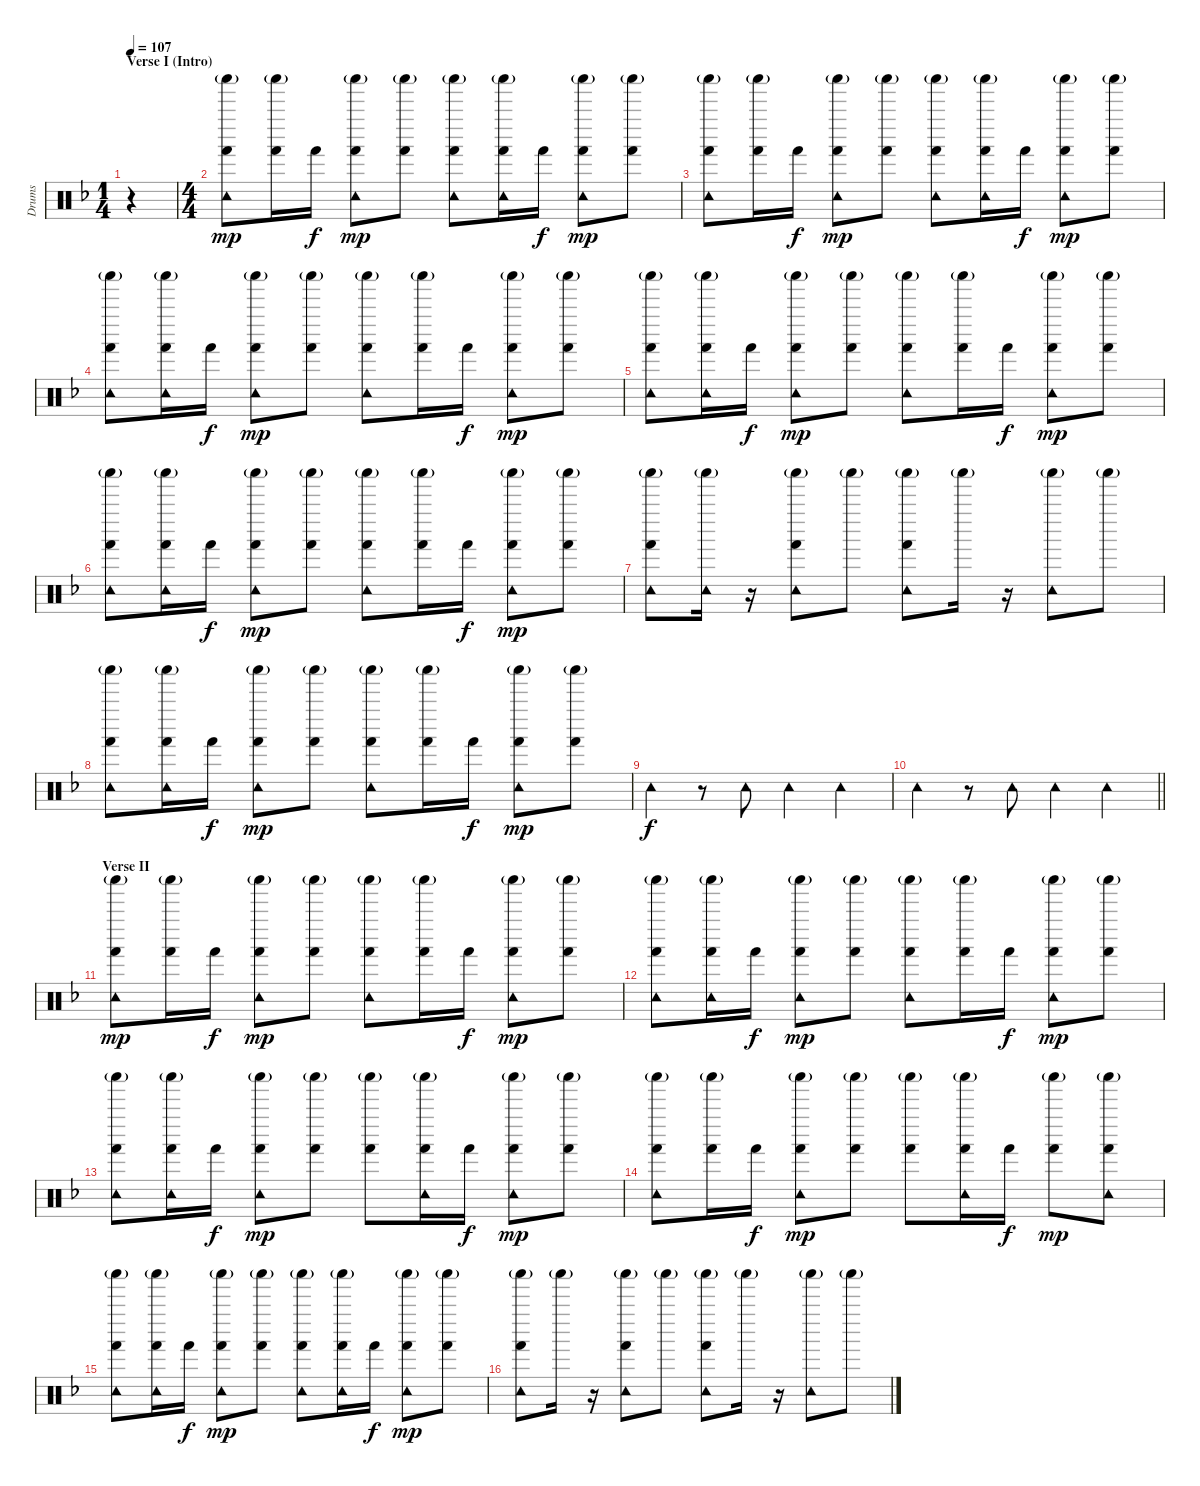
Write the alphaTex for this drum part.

\track ("Drums" "Drums") {instrument percussion}
\staff {score}
\articulation defaults
\ts (1 4)
\section ("" "Verse I (Intro)")
\tempo 107
\clef neutral
\ks f
r.4{dy mp} |
\ts (4 4)
("Tambourine (hit)" "Shaker (hit)"{g} "Hand (hit)").8 ("Shaker (hit)"{g} "Hand (hit)").16 "Hand (hit)".16{dy f} ("Tambourine (hit)" "Shaker (hit)"{g} "Hand (hit)").8{dy mp} ("Shaker (hit)"{g} "Hand (hit)").8 ("Tambourine (hit)" "Shaker (hit)"{g} "Hand (hit)").8 ("Tambourine (hit)" "Shaker (hit)"{g} "Hand (hit)").16 "Hand (hit)".16{dy f} ("Tambourine (hit)" "Shaker (hit)"{g} "Hand (hit)").8{dy mp} ("Shaker (hit)"{g} "Hand (hit)").8 |
("Tambourine (hit)" "Shaker (hit)"{g} "Hand (hit)").8 ("Shaker (hit)"{g} "Hand (hit)").16 "Hand (hit)".16{dy f} ("Tambourine (hit)" "Shaker (hit)"{g} "Hand (hit)").8{dy mp} ("Shaker (hit)"{g} "Hand (hit)").8 ("Tambourine (hit)" "Shaker (hit)"{g} "Hand (hit)").8 ("Tambourine (hit)" "Shaker (hit)"{g} "Hand (hit)").16 "Hand (hit)".16{dy f} ("Tambourine (hit)" "Shaker (hit)"{g} "Hand (hit)").8{dy mp} ("Shaker (hit)"{g} "Hand (hit)").8 |
("Tambourine (hit)" "Shaker (hit)"{g} "Hand (hit)").8 ("Tambourine (hit)" "Shaker (hit)"{g} "Hand (hit)").16 "Hand (hit)".16{dy f} ("Tambourine (hit)" "Shaker (hit)"{g} "Hand (hit)").8{dy mp} ("Shaker (hit)"{g} "Hand (hit)").8 ("Tambourine (hit)" "Shaker (hit)"{g} "Hand (hit)").8 ("Shaker (hit)"{g} "Hand (hit)").16 "Hand (hit)".16{dy f} ("Tambourine (hit)" "Shaker (hit)"{g} "Hand (hit)").8{dy mp} ("Shaker (hit)"{g} "Hand (hit)").8 |
("Tambourine (hit)" "Shaker (hit)"{g} "Hand (hit)").8 ("Tambourine (hit)" "Shaker (hit)"{g} "Hand (hit)").16 "Hand (hit)".16{dy f} ("Tambourine (hit)" "Shaker (hit)"{g} "Hand (hit)").8{dy mp} ("Shaker (hit)"{g} "Hand (hit)").8 ("Tambourine (hit)" "Shaker (hit)"{g} "Hand (hit)").8 ("Shaker (hit)"{g} "Hand (hit)").16 "Hand (hit)".16{dy f} ("Tambourine (hit)" "Shaker (hit)"{g} "Hand (hit)").8{dy mp} ("Shaker (hit)"{g} "Hand (hit)").8 |
("Tambourine (hit)" "Shaker (hit)"{g} "Hand (hit)").8 ("Tambourine (hit)" "Shaker (hit)"{g} "Hand (hit)").16 "Hand (hit)".16{dy f} ("Tambourine (hit)" "Shaker (hit)"{g} "Hand (hit)").8{dy mp} ("Shaker (hit)"{g} "Hand (hit)").8 ("Tambourine (hit)" "Shaker (hit)"{g} "Hand (hit)").8 ("Shaker (hit)"{g} "Hand (hit)").16 "Hand (hit)".16{dy f} ("Tambourine (hit)" "Shaker (hit)"{g} "Hand (hit)").8{dy mp} ("Shaker (hit)"{g} "Hand (hit)").8 |
("Tambourine (hit)" "Shaker (hit)"{g} "Hand (hit)").8 ("Tambourine (hit)" "Shaker (hit)"{g}).16 r.16 ("Tambourine (hit)" "Shaker (hit)"{g} "Hand (hit)").8 "Shaker (hit)"{g}.8 ("Tambourine (hit)" "Shaker (hit)"{g} "Hand (hit)").8 "Shaker (hit)"{g}.16 r.16 ("Tambourine (hit)" "Shaker (hit)"{g}).8 "Shaker (hit)"{g}.8 |
("Tambourine (hit)" "Shaker (hit)"{g} "Hand (hit)").8 ("Tambourine (hit)" "Shaker (hit)"{g} "Hand (hit)").16 "Hand (hit)".16{dy f} ("Tambourine (hit)" "Shaker (hit)"{g} "Hand (hit)").8{dy mp} ("Shaker (hit)"{g} "Hand (hit)").8 ("Tambourine (hit)" "Shaker (hit)"{g} "Hand (hit)").8 ("Shaker (hit)"{g} "Hand (hit)").16 "Hand (hit)".16{dy f} ("Tambourine (hit)" "Shaker (hit)"{g} "Hand (hit)").8{dy mp} ("Shaker (hit)"{g} "Hand (hit)").8 |
"Tambourine (hit)".4{dy f} r.8 "Tambourine (hit)".8 "Tambourine (hit)".4 "Tambourine (hit)".4 |
\barLineRight lightlight "Tambourine (hit)".4
r.8 "Tambourine (hit)".8 "Tambourine (hit)".4 "Tambourine (hit)".4 |
\section ("" "Verse II")
("Tambourine (hit)" "Shaker (hit)"{g} "Hand (hit)").8{dy mp} ("Shaker (hit)"{g} "Hand (hit)").16 "Hand (hit)".16{dy f} ("Tambourine (hit)" "Shaker (hit)"{g} "Hand (hit)").8{dy mp} ("Shaker (hit)"{g} "Hand (hit)").8 ("Tambourine (hit)" "Shaker (hit)"{g} "Hand (hit)").8 ("Shaker (hit)"{g} "Hand (hit)").16 "Hand (hit)".16{dy f} ("Tambourine (hit)" "Shaker (hit)"{g} "Hand (hit)").8{dy mp} ("Shaker (hit)"{g} "Hand (hit)").8 |
("Tambourine (hit)" "Shaker (hit)"{g} "Hand (hit)").8 ("Tambourine (hit)" "Shaker (hit)"{g} "Hand (hit)").16 "Hand (hit)".16{dy f} ("Tambourine (hit)" "Shaker (hit)"{g} "Hand (hit)").8{dy mp} ("Shaker (hit)"{g} "Hand (hit)").8 ("Tambourine (hit)" "Shaker (hit)"{g} "Hand (hit)").8 ("Shaker (hit)"{g} "Hand (hit)").16 "Hand (hit)".16{dy f} ("Tambourine (hit)" "Shaker (hit)"{g} "Hand (hit)").8{dy mp} ("Shaker (hit)"{g} "Hand (hit)").8 |
("Tambourine (hit)" "Shaker (hit)"{g} "Hand (hit)").8 ("Tambourine (hit)" "Shaker (hit)"{g} "Hand (hit)").16 "Hand (hit)".16{dy f} ("Tambourine (hit)" "Shaker (hit)"{g} "Hand (hit)").8{dy mp} ("Shaker (hit)"{g} "Hand (hit)").8 ("Shaker (hit)"{g} "Hand (hit)").8 ("Tambourine (hit)" "Shaker (hit)"{g} "Hand (hit)").16 "Hand (hit)".16{dy f} ("Tambourine (hit)" "Shaker (hit)"{g} "Hand (hit)").8{dy mp} ("Shaker (hit)"{g} "Hand (hit)").8 |
("Tambourine (hit)" "Shaker (hit)"{g} "Hand (hit)").8 ("Shaker (hit)"{g} "Hand (hit)").16 "Hand (hit)".16{dy f} ("Tambourine (hit)" "Shaker (hit)"{g} "Hand (hit)").8{dy mp} ("Shaker (hit)"{g} "Hand (hit)").8 ("Shaker (hit)"{g} "Hand (hit)").8 ("Tambourine (hit)" "Shaker (hit)"{g} "Hand (hit)").16 "Hand (hit)".16{dy f} ("Shaker (hit)"{g} "Hand (hit)").8{dy mp} ("Tambourine (hit)" "Shaker (hit)"{g} "Hand (hit)").8 |
("Tambourine (hit)" "Shaker (hit)"{g} "Hand (hit)").8 ("Tambourine (hit)" "Shaker (hit)"{g} "Hand (hit)").16 "Hand (hit)".16{dy f} ("Tambourine (hit)" "Shaker (hit)"{g} "Hand (hit)").8{dy mp} ("Shaker (hit)"{g} "Hand (hit)").8 ("Tambourine (hit)" "Shaker (hit)"{g} "Hand (hit)").8 ("Tambourine (hit)" "Shaker (hit)"{g} "Hand (hit)").16 "Hand (hit)".16{dy f} ("Tambourine (hit)" "Shaker (hit)"{g} "Hand (hit)").8{dy mp} ("Shaker (hit)"{g} "Hand (hit)").8 |
("Tambourine (hit)" "Shaker (hit)"{g} "Hand (hit)").8 "Shaker (hit)"{g}.16 r.16 ("Tambourine (hit)" "Shaker (hit)"{g} "Hand (hit)").8 "Shaker (hit)"{g}.8 ("Tambourine (hit)" "Shaker (hit)"{g} "Hand (hit)").8 "Shaker (hit)"{g}.16 r.16 ("Tambourine (hit)" "Shaker (hit)"{g}).8 "Shaker (hit)"{g}.8
